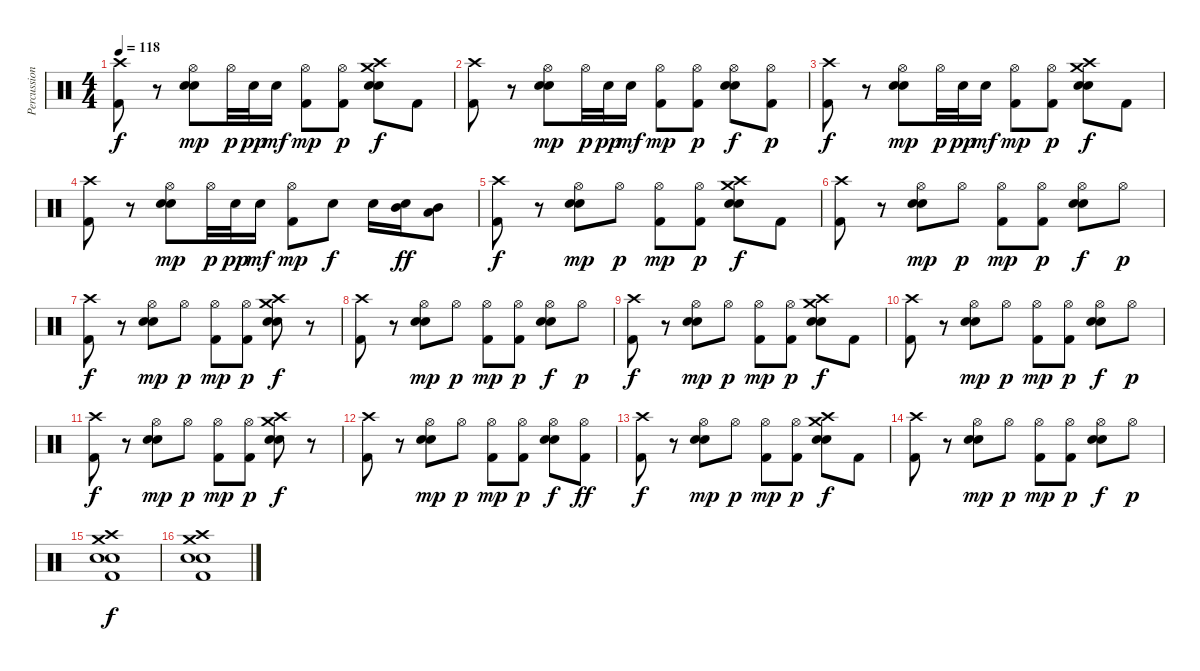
\track ("Percussion" "Percussion") {instrument percussion}
\staff
\articulation defaults
\ts (4 4)
\tempo 118
\clef neutral
\ks c
("Crash high (hit)" "Kick (hit) 2").8{dy f} r.8 ("Hi-Hat (open)" "Electric Snare (hit)" "Snare (hit) 2").8{dy mp} "Hi-Hat (open)".32{dy p} "Snare (hit) 2".32{dy pp} "Snare (hit) 2".16{dy mf} ("Hi-Hat (open)" "Kick (hit) 2").8{dy mp} ("Hi-Hat (open)" "Kick (hit) 2").8{dy p} ("Crash medium (hit)" "Crash high (hit)" "Electric Snare (hit)" "Snare (hit) 2").8{dy f} "Kick (hit) 2".8 |
("Crash high (hit)" "Kick (hit) 2").8 r.8 ("Hi-Hat (open)" "Electric Snare (hit)" "Snare (hit) 2").8{dy mp} "Hi-Hat (open)".32{dy p} "Snare (hit) 2".32{dy pp} "Snare (hit) 2".16{dy mf} ("Hi-Hat (open)" "Kick (hit) 2").8{dy mp} ("Hi-Hat (open)" "Kick (hit) 2").8{dy p} ("Hi-Hat (open)" "Electric Snare (hit)" "Snare (hit) 2").8{dy f} ("Hi-Hat (open)" "Kick (hit) 2").8{dy p} |
("Crash high (hit)" "Kick (hit) 2").8{dy f} r.8 ("Hi-Hat (open)" "Electric Snare (hit)" "Snare (hit) 2").8{dy mp} "Hi-Hat (open)".32{dy p} "Snare (hit) 2".32{dy pp} "Snare (hit) 2".16{dy mf} ("Hi-Hat (open)" "Kick (hit) 2").8{dy mp} ("Hi-Hat (open)" "Kick (hit) 2").8{dy p} ("Crash medium (hit)" "Crash high (hit)" "Electric Snare (hit)" "Snare (hit) 2").8{dy f} "Kick (hit) 2".8 |
("Crash high (hit)" "Kick (hit) 2").8 r.8 ("Hi-Hat (open)" "Electric Snare (hit)" "Snare (hit) 2").8{dy mp} "Hi-Hat (open)".32{dy p} "Snare (hit) 2".32{dy pp} "Snare (hit) 2".16{dy mf} ("Hi-Hat (open)" "Kick (hit) 2").8{dy mp} "Electric Snare (hit)".8{dy f} "Electric Snare (hit)".16 ("Electric Snare (hit)" "Mid Tom (hit)").16{dy ff} ("Mid Tom (hit)" "Low Tom (hit)").8 |
("Crash high (hit)" "Kick (hit) 2").8{dy f} r.8 ("Hi-Hat (open)" "Electric Snare (hit)" "Snare (hit) 2").8{dy mp} "Hi-Hat (open)".8{dy p} ("Hi-Hat (open)" "Kick (hit) 2").8{dy mp} ("Hi-Hat (open)" "Kick (hit) 2").8{dy p} ("Crash medium (hit)" "Crash high (hit)" "Electric Snare (hit)" "Snare (hit) 2").8{dy f} "Kick (hit) 2".8 |
("Crash high (hit)" "Kick (hit) 2").8 r.8 ("Hi-Hat (open)" "Electric Snare (hit)" "Snare (hit) 2").8{dy mp} "Hi-Hat (open)".8{dy p} ("Hi-Hat (open)" "Kick (hit) 2").8{dy mp} ("Hi-Hat (open)" "Kick (hit) 2").8{dy p} ("Hi-Hat (open)" "Electric Snare (hit)" "Snare (hit) 2").8{dy f} "Hi-Hat (open)".8{dy p} |
("Crash high (hit)" "Kick (hit) 2").8{dy f} r.8 ("Hi-Hat (open)" "Electric Snare (hit)" "Snare (hit) 2").8{dy mp} "Hi-Hat (open)".8{dy p} ("Hi-Hat (open)" "Kick (hit) 2").8{dy mp} ("Hi-Hat (open)" "Kick (hit) 2").8{dy p} ("Crash medium (hit)" "Crash high (hit)" "Electric Snare (hit)" "Snare (hit) 2").8{dy f} r.8 |
("Crash high (hit)" "Kick (hit) 2").8 r.8 ("Hi-Hat (open)" "Electric Snare (hit)" "Snare (hit) 2").8{dy mp} "Hi-Hat (open)".8{dy p} ("Hi-Hat (open)" "Kick (hit) 2").8{dy mp} ("Hi-Hat (open)" "Kick (hit) 2").8{dy p} ("Hi-Hat (open)" "Electric Snare (hit)" "Snare (hit) 2").8{dy f} "Hi-Hat (open)".8{dy p} |
("Crash high (hit)" "Kick (hit) 2").8{dy f} r.8 ("Hi-Hat (open)" "Electric Snare (hit)" "Snare (hit) 2").8{dy mp} "Hi-Hat (open)".8{dy p} ("Hi-Hat (open)" "Kick (hit) 2").8{dy mp} ("Hi-Hat (open)" "Kick (hit) 2").8{dy p} ("Crash medium (hit)" "Crash high (hit)" "Electric Snare (hit)" "Snare (hit) 2").8{dy f} "Kick (hit) 2".8 |
("Crash high (hit)" "Kick (hit) 2").8 r.8 ("Hi-Hat (open)" "Electric Snare (hit)" "Snare (hit) 2").8{dy mp} "Hi-Hat (open)".8{dy p} ("Hi-Hat (open)" "Kick (hit) 2").8{dy mp} ("Hi-Hat (open)" "Kick (hit) 2").8{dy p} ("Hi-Hat (open)" "Electric Snare (hit)" "Snare (hit) 2").8{dy f} "Hi-Hat (open)".8{dy p} |
("Crash high (hit)" "Kick (hit) 2").8{dy f} r.8 ("Hi-Hat (open)" "Electric Snare (hit)" "Snare (hit) 2").8{dy mp} "Hi-Hat (open)".8{dy p} ("Hi-Hat (open)" "Kick (hit) 2").8{dy mp} ("Hi-Hat (open)" "Kick (hit) 2").8{dy p} ("Crash medium (hit)" "Crash high (hit)" "Electric Snare (hit)" "Snare (hit) 2").8{dy f} r.8 |
("Crash high (hit)" "Kick (hit) 2").8 r.8 ("Hi-Hat (open)" "Electric Snare (hit)" "Snare (hit) 2").8{dy mp} "Hi-Hat (open)".8{dy p} ("Hi-Hat (open)" "Kick (hit) 2").8{dy mp} ("Hi-Hat (open)" "Kick (hit) 2").8{dy p} ("Hi-Hat (open)" "Electric Snare (hit)" "Snare (hit) 2").8{dy f} ("Hi-Hat (open)" "Kick (hit) 2").8{dy ff} |
("Crash high (hit)" "Kick (hit) 2").8{dy f} r.8 ("Hi-Hat (open)" "Electric Snare (hit)" "Snare (hit) 2").8{dy mp} "Hi-Hat (open)".8{dy p} ("Hi-Hat (open)" "Kick (hit) 2").8{dy mp} ("Hi-Hat (open)" "Kick (hit) 2").8{dy p} ("Crash medium (hit)" "Crash high (hit)" "Electric Snare (hit)" "Snare (hit) 2").8{dy f} "Kick (hit) 2".8 |
("Crash high (hit)" "Kick (hit) 2").8 r.8 ("Hi-Hat (open)" "Electric Snare (hit)" "Snare (hit) 2").8{dy mp} "Hi-Hat (open)".8{dy p} ("Hi-Hat (open)" "Kick (hit) 2").8{dy mp} ("Hi-Hat (open)" "Kick (hit) 2").8{dy p} ("Hi-Hat (open)" "Electric Snare (hit)" "Snare (hit) 2").8{dy f} "Hi-Hat (open)".8{dy p} |
("Crash medium (hit)" "Crash high (hit)" "Electric Snare (hit)" "Snare (hit) 2" "Kick (hit) 2").1{dy f} |
("Crash medium (hit)" "Crash high (hit)" "Electric Snare (hit)" "Snare (hit) 2" "Kick (hit) 2").1
